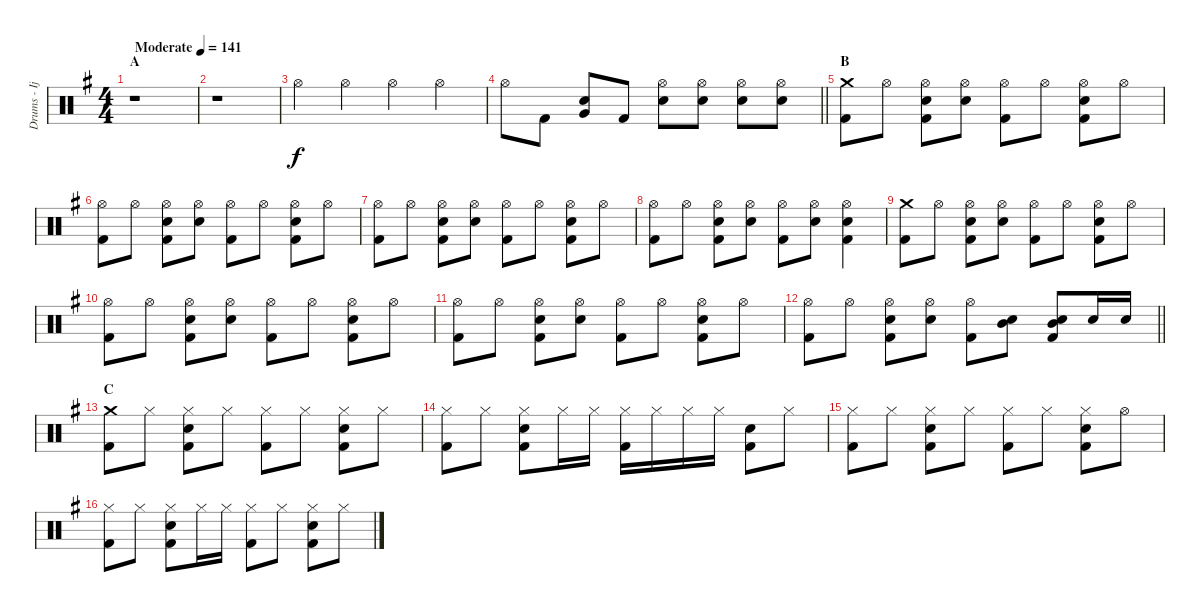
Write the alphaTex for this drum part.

\track ("Drums - Ijichi Kiyoshi" "Drums - Ij") {instrument percussion}
\staff {score}
\articulation defaults
\ts (4 4)
\section ("" "A")
\tempo (141 "Moderate")
\clef neutral
\ks g
r.1{dy f} |
r.1 |
"Hi-Hat (open)".4 "Hi-Hat (open)".4 "Hi-Hat (open)".4 "Hi-Hat (open)".4 |
\barLineRight lightlight "Hi-Hat (open)".8 "Kick (hit) 2".8
("Electric Snare (hit)" "Very Low Tom (hit)").8 "Kick (hit) 2".8 ("Hi-Hat (open)" "Electric Snare (hit)").8 ("Hi-Hat (open)" "Electric Snare (hit)").8 ("Hi-Hat (open)" "Electric Snare (hit)").8 ("Hi-Hat (open)" "Electric Snare (hit)").8 |
\section ("" "B")
("Crash medium (hit)" "Kick (hit) 2").8 "Hi-Hat (open)".8 ("Hi-Hat (open)" "Electric Snare (hit)" "Kick (hit) 2").8 ("Hi-Hat (open)" "Electric Snare (hit)").8 ("Hi-Hat (open)" "Kick (hit) 2").8 "Hi-Hat (open)".8 ("Hi-Hat (open)" "Electric Snare (hit)" "Kick (hit) 2").8 "Hi-Hat (open)".8 |
("Hi-Hat (open)" "Kick (hit) 2").8 "Hi-Hat (open)".8 ("Hi-Hat (open)" "Electric Snare (hit)" "Kick (hit) 2").8 ("Hi-Hat (open)" "Electric Snare (hit)").8 ("Hi-Hat (open)" "Kick (hit) 2").8 "Hi-Hat (open)".8 ("Hi-Hat (open)" "Electric Snare (hit)" "Kick (hit) 2").8 "Hi-Hat (open)".8 |
("Hi-Hat (open)" "Kick (hit) 2").8 "Hi-Hat (open)".8 ("Hi-Hat (open)" "Electric Snare (hit)" "Kick (hit) 2").8 ("Hi-Hat (open)" "Electric Snare (hit)").8 ("Hi-Hat (open)" "Kick (hit) 2").8 "Hi-Hat (open)".8 ("Hi-Hat (open)" "Electric Snare (hit)" "Kick (hit) 2").8 "Hi-Hat (open)".8 |
("Hi-Hat (open)" "Kick (hit) 2").8 "Hi-Hat (open)".8 ("Hi-Hat (open)" "Electric Snare (hit)" "Kick (hit) 2").8 ("Hi-Hat (open)" "Electric Snare (hit)").8 ("Hi-Hat (open)" "Kick (hit) 2").8 ("Hi-Hat (open)" "Electric Snare (hit)").8 ("Hi-Hat (open)" "Electric Snare (hit)" "Kick (hit) 2").4 |
("Crash medium (hit)" "Kick (hit) 2").8 "Hi-Hat (open)".8 ("Hi-Hat (open)" "Electric Snare (hit)" "Kick (hit) 2").8 ("Hi-Hat (open)" "Electric Snare (hit)").8 ("Hi-Hat (open)" "Kick (hit) 2").8 "Hi-Hat (open)".8 ("Hi-Hat (open)" "Electric Snare (hit)" "Kick (hit) 2").8 "Hi-Hat (open)".8 |
("Hi-Hat (open)" "Kick (hit) 2").8 "Hi-Hat (open)".8 ("Hi-Hat (open)" "Electric Snare (hit)" "Kick (hit) 2").8 ("Hi-Hat (open)" "Electric Snare (hit)").8 ("Hi-Hat (open)" "Kick (hit) 2").8 "Hi-Hat (open)".8 ("Hi-Hat (open)" "Electric Snare (hit)" "Kick (hit) 2").8 "Hi-Hat (open)".8 |
("Hi-Hat (open)" "Kick (hit) 2").8 "Hi-Hat (open)".8 ("Hi-Hat (open)" "Electric Snare (hit)" "Kick (hit) 2").8 ("Hi-Hat (open)" "Electric Snare (hit)").8 ("Hi-Hat (open)" "Kick (hit) 2").8 "Hi-Hat (open)".8 ("Hi-Hat (open)" "Electric Snare (hit)" "Kick (hit) 2").8 "Hi-Hat (open)".8 |
\barLineRight lightlight
("Hi-Hat (open)" "Kick (hit) 2").8 "Hi-Hat (open)".8 ("Hi-Hat (open)" "Electric Snare (hit)" "Kick (hit) 2").8 ("Hi-Hat (open)" "Electric Snare (hit)").8 ("Hi-Hat (open)" "Kick (hit) 2").8 ("Mid Tom (hit)" "Electric Snare (hit)").8 ("Mid Tom (hit)" "Electric Snare (hit)" "Kick (hit) 2").8 "Electric Snare (hit)".16 "Electric Snare (hit)".16 |
\section ("" "C")
("Crash medium (hit)" "Kick (hit) 2").8 "Hi-Hat (closed)".8 ("Hi-Hat (closed)" "Electric Snare (hit)" "Kick (hit) 2").8 "Hi-Hat (closed)".8 ("Hi-Hat (closed)" "Kick (hit) 2").8 "Hi-Hat (closed)".8 ("Hi-Hat (closed)" "Electric Snare (hit)" "Kick (hit) 2").8 "Hi-Hat (closed)".8 |
("Hi-Hat (closed)" "Kick (hit) 2").8 "Hi-Hat (closed)".8 ("Hi-Hat (closed)" "Electric Snare (hit)" "Kick (hit) 2").8 "Hi-Hat (closed)".16 "Hi-Hat (closed)".16 ("Hi-Hat (closed)" "Kick (hit) 2").16 "Hi-Hat (closed)".16 "Hi-Hat (closed)".16 "Hi-Hat (closed)".16 ("Electric Snare (hit)" "Kick (hit) 2").8 "Hi-Hat (closed)".8 |
("Hi-Hat (closed)" "Kick (hit) 2").8 "Hi-Hat (closed)".8 ("Hi-Hat (closed)" "Electric Snare (hit)" "Kick (hit) 2").8 "Hi-Hat (closed)".8 ("Hi-Hat (closed)" "Kick (hit) 2").8 "Hi-Hat (closed)".8 ("Hi-Hat (closed)" "Electric Snare (hit)" "Kick (hit) 2").8 "Hi-Hat (open)".8 |
("Hi-Hat (closed)" "Kick (hit) 2").8 "Hi-Hat (closed)".8 ("Hi-Hat (closed)" "Electric Snare (hit)" "Kick (hit) 2").8 "Hi-Hat (closed)".16 "Hi-Hat (closed)".16 ("Hi-Hat (closed)" "Kick (hit) 2").8 "Hi-Hat (closed)".8 ("Hi-Hat (closed)" "Electric Snare (hit)" "Kick (hit) 2").8 "Hi-Hat (closed)".8
